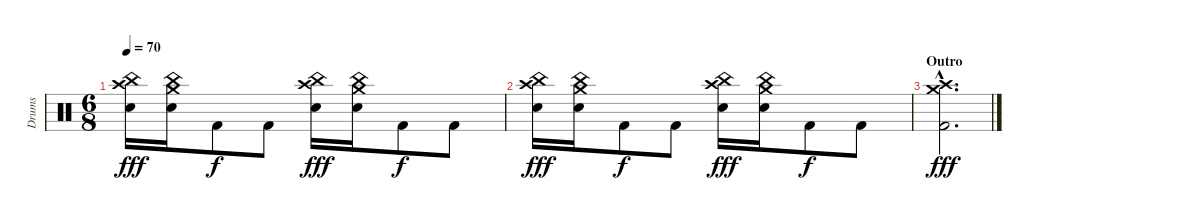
\track ("Drums" "Drums") {instrument percussion}
\staff {score}
\articulation defaults
\ts (6 8)
\tempo 70
\clef neutral
\ks c
("Crash high (hit)" "China (hit)" "Electric Snare (hit)").16{dy fff} ("Crash medium (hit)" "China (hit)" "Electric Snare (hit)").16 "Kick (hit) 2".8{dy f} "Kick (hit) 2".8 ("Crash high (hit)" "China (hit)" "Electric Snare (hit)").16{dy fff} ("Crash medium (hit)" "China (hit)" "Electric Snare (hit)").16 "Kick (hit) 2".8{dy f} "Kick (hit) 2".8 |
("Crash high (hit)" "China (hit)" "Electric Snare (hit)").16{dy fff} ("Crash medium (hit)" "China (hit)" "Electric Snare (hit)").16 "Kick (hit) 2".8{dy f} "Kick (hit) 2".8 ("Crash high (hit)" "China (hit)" "Electric Snare (hit)").16{dy fff} ("Crash medium (hit)" "China (hit)" "Electric Snare (hit)").16 "Kick (hit) 2".8{dy f} "Kick (hit) 2".8 |
\section ("" "Outro")
("Crash high (hit)"{hac} "Crash medium (hit)"{hac} "Kick (hit) 2"{hac}).2{d dy fff}
